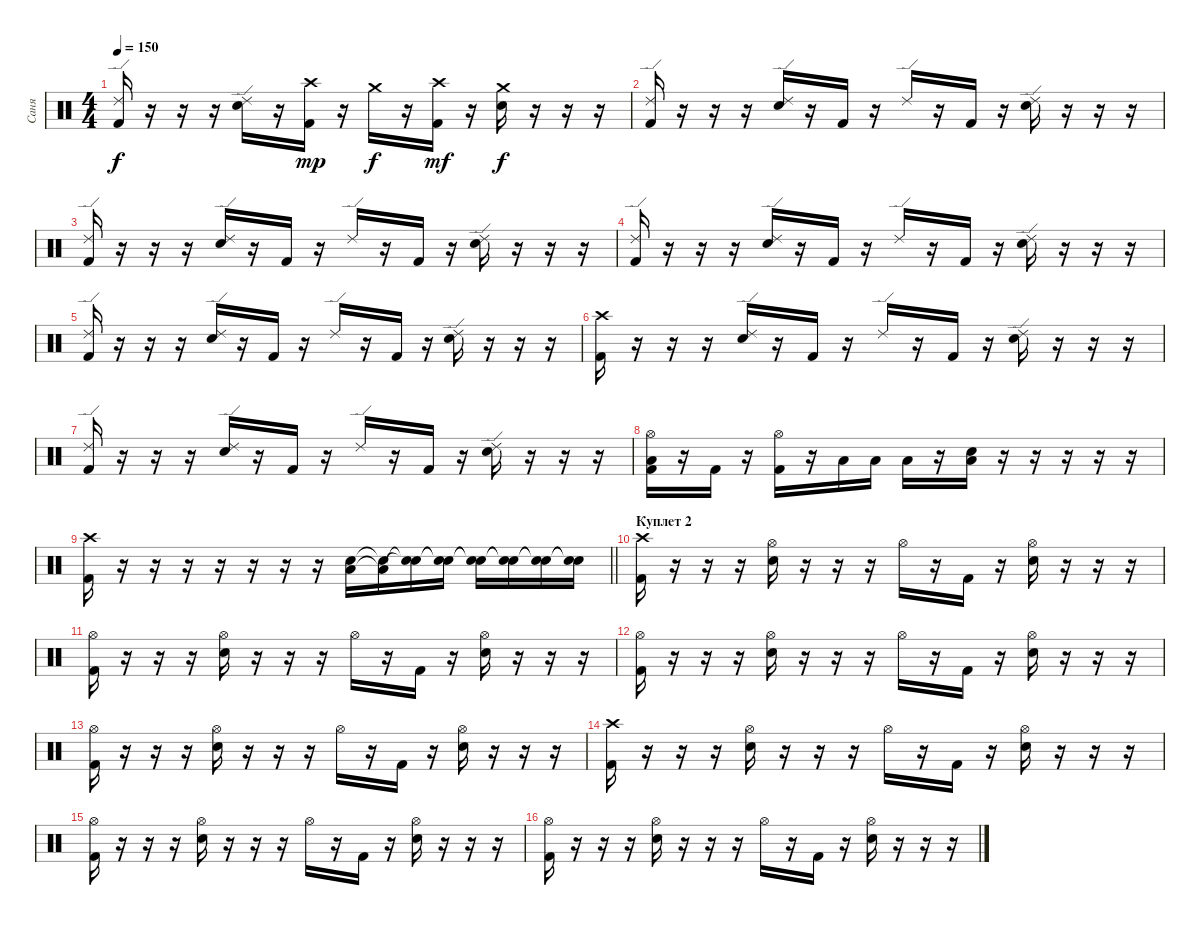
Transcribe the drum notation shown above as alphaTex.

\track ("Саня" "Саня") {instrument percussion}
\staff {score}
\articulation defaults
\ts (4 4)
\tempo 150
\clef neutral
\ks c
("Kick (hit) 2" "Ride (edge) 2").16{dy f} r.16 r.16 r.16 ("Snare (hit) 2" "Ride (edge) 2").16 r.16 ("Kick (hit) 2" "Crash high (hit)").16{dy mp} r.16 "Crash medium (hit)".16{dy f} r.16 ("Kick (hit) 2" "Crash high (hit)").16{dy mf} r.16 ("Snare (hit) 2" "Crash medium (hit)").16{dy f} r.16 r.16 r.16 |
("Kick (hit) 2" "Ride (edge) 2").16 r.16 r.16 r.16 ("Snare (hit) 2" "Ride (edge) 2").16 r.16 "Kick (hit) 2".16 r.16 "Ride (edge) 2".16 r.16 "Kick (hit) 2".16 r.16 ("Snare (hit) 2" "Ride (edge) 2").16 r.16 r.16 r.16 |
("Kick (hit) 2" "Ride (edge) 2").16 r.16 r.16 r.16 ("Snare (hit) 2" "Ride (edge) 2").16 r.16 "Kick (hit) 2".16 r.16 "Ride (edge) 2".16 r.16 "Kick (hit) 2".16 r.16 ("Snare (hit) 2" "Ride (edge) 2").16 r.16 r.16 r.16 |
("Kick (hit) 2" "Ride (edge) 2").16 r.16 r.16 r.16 ("Snare (hit) 2" "Ride (edge) 2").16 r.16 "Kick (hit) 2".16 r.16 "Ride (edge) 2".16 r.16 "Kick (hit) 2".16 r.16 ("Snare (hit) 2" "Ride (edge) 2").16 r.16 r.16 r.16 |
("Kick (hit) 2" "Ride (edge) 2").16 r.16 r.16 r.16 ("Snare (hit) 2" "Ride (edge) 2").16 r.16 "Kick (hit) 2".16 r.16 "Ride (edge) 2".16 r.16 "Kick (hit) 2".16 r.16 ("Snare (hit) 2" "Ride (edge) 2").16 r.16 r.16 r.16 |
("Kick (hit) 2" "Crash high (hit)").16 r.16 r.16 r.16 ("Snare (hit) 2" "Ride (edge) 2").16 r.16 "Kick (hit) 2".16 r.16 "Ride (edge) 2".16 r.16 "Kick (hit) 2".16 r.16 ("Snare (hit) 2" "Ride (edge) 2").16 r.16 r.16 r.16 |
("Kick (hit) 2" "Ride (edge) 2").16 r.16 r.16 r.16 ("Snare (hit) 2" "Ride (edge) 2").16 r.16 "Kick (hit) 2".16 r.16 "Ride (edge) 2".16 r.16 "Kick (hit) 2".16 r.16 ("Snare (hit) 2" "Ride (edge) 2").16 r.16 r.16 r.16 |
("Low Floor Tom (hit)" "Hi-Hat (open)" "Kick (hit) 2").16 r.16 "Kick (hit) 2".16 r.16 ("Hi-Hat (open)" "Kick (hit) 2").16 r.16 "Low Floor Tom (hit)".16 "Low Floor Tom (hit)".16 "Low Floor Tom (hit)".16 r.16 ("Low Floor Tom (hit)" "Snare (hit) 2").16 r.16 r.16 r.16 r.16 r.16 |
\barLineRight lightlight
("Kick (hit) 2" "Crash high (hit)").16 r.16 r.16 r.16 r.16 r.16 r.16 r.16 ("Low Floor Tom (hit)" "Snare (hit) 2").16 ("Low Floor Tom (hit)"{t} "Snare (hit) 2"{t}).16 ("Snare (hit)"{t} "Snare (hit)"{t}).16 ("Snare (hit)"{t} "Snare (hit)"{t}).16 ("Snare (hit)"{t} "Snare (hit)"{t}).16 ("Snare (hit)"{t} "Snare (hit)"{t}).16 ("Snare (hit)"{t} "Snare (hit)"{t}).16 ("Snare (hit)"{t} "Snare (hit)"{t}).16 |
\section ("" "Куплет 2")
("Kick (hit) 2" "Crash high (hit)").16 r.16 r.16 r.16 ("Snare (hit) 2" "Hi-Hat (open)").16 r.16 r.16 r.16 "Hi-Hat (open)".16 r.16 "Kick (hit) 2".16 r.16 ("Snare (hit) 2" "Hi-Hat (open)").16 r.16 r.16 r.16 |
("Kick (hit) 2" "Hi-Hat (open)").16 r.16 r.16 r.16 ("Snare (hit) 2" "Hi-Hat (open)").16 r.16 r.16 r.16 "Hi-Hat (open)".16 r.16 "Kick (hit) 2".16 r.16 ("Snare (hit) 2" "Hi-Hat (open)").16 r.16 r.16 r.16 |
("Kick (hit) 2" "Hi-Hat (open)").16 r.16 r.16 r.16 ("Snare (hit) 2" "Hi-Hat (open)").16 r.16 r.16 r.16 "Hi-Hat (open)".16 r.16 "Kick (hit) 2".16 r.16 ("Snare (hit) 2" "Hi-Hat (open)").16 r.16 r.16 r.16 |
("Kick (hit) 2" "Hi-Hat (open)").16 r.16 r.16 r.16 ("Snare (hit) 2" "Hi-Hat (open)").16 r.16 r.16 r.16 "Hi-Hat (open)".16 r.16 "Kick (hit) 2".16 r.16 ("Snare (hit) 2" "Hi-Hat (open)").16 r.16 r.16 r.16 |
("Kick (hit) 2" "Crash high (hit)").16 r.16 r.16 r.16 ("Snare (hit) 2" "Hi-Hat (open)").16 r.16 r.16 r.16 "Hi-Hat (open)".16 r.16 "Kick (hit) 2".16 r.16 ("Snare (hit) 2" "Hi-Hat (open)").16 r.16 r.16 r.16 |
("Kick (hit) 2" "Hi-Hat (open)").16 r.16 r.16 r.16 ("Snare (hit) 2" "Hi-Hat (open)").16 r.16 r.16 r.16 "Hi-Hat (open)".16 r.16 "Kick (hit) 2".16 r.16 ("Snare (hit) 2" "Hi-Hat (open)").16 r.16 r.16 r.16 |
("Kick (hit) 2" "Hi-Hat (open)").16 r.16 r.16 r.16 ("Snare (hit) 2" "Hi-Hat (open)").16 r.16 r.16 r.16 "Hi-Hat (open)".16 r.16 "Kick (hit) 2".16 r.16 ("Snare (hit) 2" "Hi-Hat (open)").16 r.16 r.16 r.16
